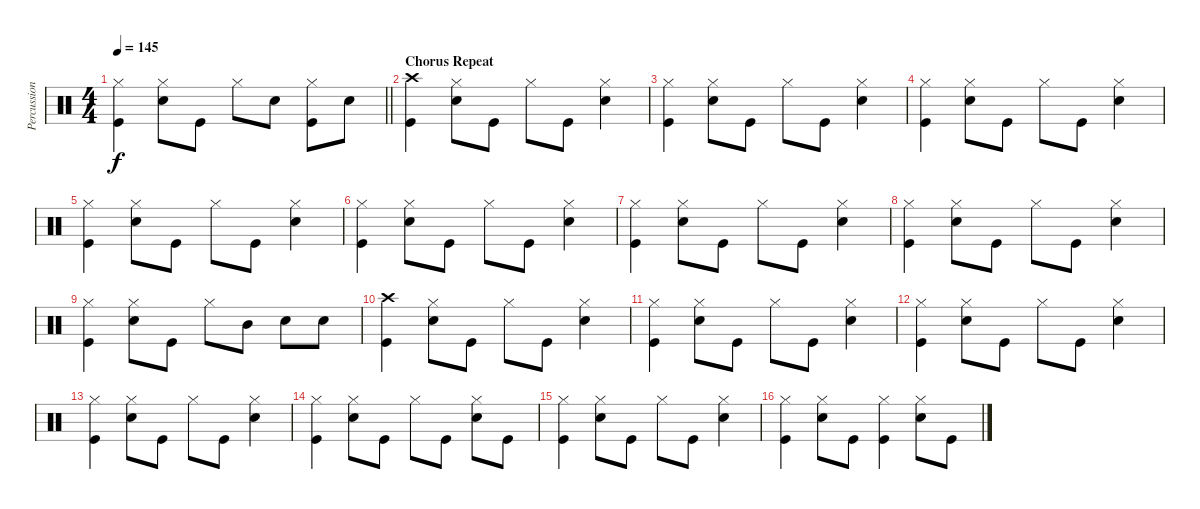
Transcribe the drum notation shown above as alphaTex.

\track ("Percussion" "Percussion") {instrument percussion}
\staff {score}
\articulation defaults
\ts (4 4)
\tempo 145
\clef neutral
\barLineRight lightlight
\ks c
("Kick (hit)" "Hi-Hat (closed)").4{dy f} ("Hi-Hat (closed)" "Snare (hit) 2").8 "Kick (hit)".8 "Hi-Hat (closed)".8 "Snare (hit) 2".8 ("Kick (hit)" "Hi-Hat (closed)").8 "Snare (hit) 2".8 |
\section ("" "Chorus Repeat")
("Kick (hit)" "Crash high (hit)").4 ("Hi-Hat (closed)" "Snare (hit) 2").8 "Kick (hit)".8 "Hi-Hat (closed)".8 "Kick (hit)".8 ("Hi-Hat (closed)" "Snare (hit) 2").4 |
("Kick (hit)" "Hi-Hat (closed)").4 ("Hi-Hat (closed)" "Snare (hit) 2").8 "Kick (hit)".8 "Hi-Hat (closed)".8 "Kick (hit)".8 ("Hi-Hat (closed)" "Snare (hit) 2").4 |
("Kick (hit)" "Hi-Hat (closed)").4 ("Hi-Hat (closed)" "Snare (hit) 2").8 "Kick (hit)".8 "Hi-Hat (closed)".8 "Kick (hit)".8 ("Hi-Hat (closed)" "Snare (hit) 2").4 |
("Kick (hit)" "Hi-Hat (closed)").4 ("Hi-Hat (closed)" "Snare (hit) 2").8 "Kick (hit)".8 "Hi-Hat (closed)".8 "Kick (hit)".8 ("Hi-Hat (closed)" "Snare (hit) 2").4 |
("Kick (hit)" "Hi-Hat (closed)").4 ("Hi-Hat (closed)" "Snare (hit) 2").8 "Kick (hit)".8 "Hi-Hat (closed)".8 "Kick (hit)".8 ("Hi-Hat (closed)" "Snare (hit) 2").4 |
("Kick (hit)" "Hi-Hat (closed)").4 ("Hi-Hat (closed)" "Snare (hit) 2").8 "Kick (hit)".8 "Hi-Hat (closed)".8 "Kick (hit)".8 ("Hi-Hat (closed)" "Snare (hit) 2").4 |
("Kick (hit)" "Hi-Hat (closed)").4 ("Hi-Hat (closed)" "Snare (hit) 2").8 "Kick (hit)".8 "Hi-Hat (closed)".8 "Kick (hit)".8 ("Hi-Hat (closed)" "Snare (hit) 2").4 |
("Kick (hit)" "Hi-Hat (closed)").4 ("Hi-Hat (closed)" "Snare (hit) 2").8 "Kick (hit)".8 "Hi-Hat (closed)".8 "Mid Tom (hit)".8 "Snare (hit) 2".8 "Snare (hit) 2".8 |
("Kick (hit)" "Crash high (hit)").4 ("Hi-Hat (closed)" "Snare (hit) 2").8 "Kick (hit)".8 "Hi-Hat (closed)".8 "Kick (hit)".8 ("Hi-Hat (closed)" "Snare (hit) 2").4 |
("Kick (hit)" "Hi-Hat (closed)").4 ("Hi-Hat (closed)" "Snare (hit) 2").8 "Kick (hit)".8 "Hi-Hat (closed)".8 "Kick (hit)".8 ("Hi-Hat (closed)" "Snare (hit) 2").4 |
("Kick (hit)" "Hi-Hat (closed)").4 ("Hi-Hat (closed)" "Snare (hit) 2").8 "Kick (hit)".8 "Hi-Hat (closed)".8 "Kick (hit)".8 ("Hi-Hat (closed)" "Snare (hit) 2").4 |
("Kick (hit)" "Hi-Hat (closed)").4 ("Hi-Hat (closed)" "Snare (hit) 2").8 "Kick (hit)".8 "Hi-Hat (closed)".8 "Kick (hit)".8 ("Hi-Hat (closed)" "Snare (hit) 2").4 |
("Kick (hit)" "Hi-Hat (closed)").4 ("Hi-Hat (closed)" "Snare (hit) 2").8 "Kick (hit)".8 "Hi-Hat (closed)".8 "Kick (hit)".8 ("Hi-Hat (closed)" "Snare (hit) 2").8 "Kick (hit)".8 |
("Kick (hit)" "Hi-Hat (closed)").4 ("Hi-Hat (closed)" "Snare (hit) 2").8 "Kick (hit)".8 "Hi-Hat (closed)".8 "Kick (hit)".8 ("Hi-Hat (closed)" "Snare (hit) 2").4 |
("Kick (hit)" "Hi-Hat (closed)").4 ("Hi-Hat (closed)" "Snare (hit) 2").8 "Kick (hit)".8 ("Kick (hit)" "Hi-Hat (closed)").4 ("Hi-Hat (closed)" "Snare (hit) 2").8 "Kick (hit)".8
